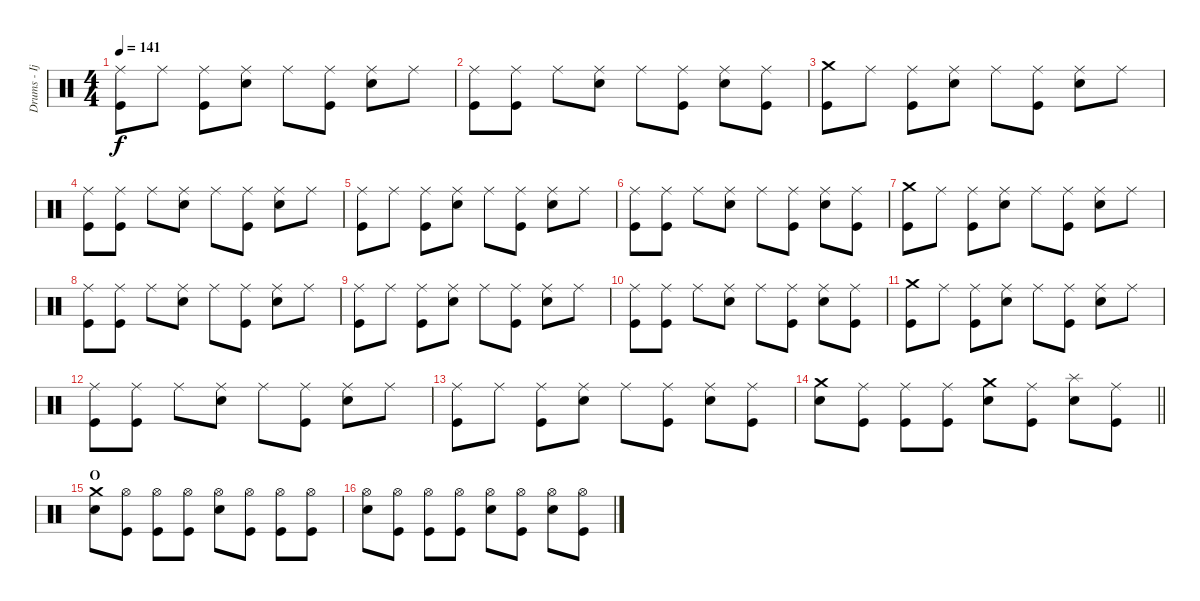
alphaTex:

\track ("Drums - Ijichi" "Drums - Ij") {instrument percussion}
\staff {score}
\articulation defaults
\ts (4 4)
\tempo 141
\clef neutral
\ks c
("Ride (middle)" "Kick (hit)").8{dy f} "Ride (middle)".8 ("Ride (middle)" "Kick (hit)").8 ("Ride (middle)" "Electric Snare (hit)").8 "Ride (middle)".8 ("Ride (middle)" "Kick (hit)").8 ("Ride (middle)" "Electric Snare (hit)").8 "Ride (middle)".8 |
("Ride (middle)" "Kick (hit)").8 ("Ride (middle)" "Kick (hit)").8 "Ride (middle)".8 ("Ride (middle)" "Electric Snare (hit)").8 "Ride (middle)".8 ("Ride (middle)" "Kick (hit)").8 ("Ride (middle)" "Electric Snare (hit)").8 ("Ride (middle)" "Kick (hit)").8 |
("Crash medium (hit)" "Kick (hit)").8 "Ride (middle)".8 ("Ride (middle)" "Kick (hit)").8 ("Ride (middle)" "Electric Snare (hit)").8 "Ride (middle)".8 ("Ride (middle)" "Kick (hit)").8 ("Ride (middle)" "Electric Snare (hit)").8 "Ride (middle)".8 |
("Ride (middle)" "Kick (hit)").8 ("Ride (middle)" "Kick (hit)").8 "Ride (middle)".8 ("Ride (middle)" "Electric Snare (hit)").8 "Ride (middle)".8 ("Ride (middle)" "Kick (hit)").8 ("Ride (middle)" "Electric Snare (hit)").8 "Ride (middle)".8 |
("Ride (middle)" "Kick (hit)").8 "Ride (middle)".8 ("Ride (middle)" "Kick (hit)").8 ("Ride (middle)" "Electric Snare (hit)").8 "Ride (middle)".8 ("Ride (middle)" "Kick (hit)").8 ("Ride (middle)" "Electric Snare (hit)").8 "Ride (middle)".8 |
("Ride (middle)" "Kick (hit)").8 ("Ride (middle)" "Kick (hit)").8 "Ride (middle)".8 ("Ride (middle)" "Electric Snare (hit)").8 "Ride (middle)".8 ("Ride (middle)" "Kick (hit)").8 ("Ride (middle)" "Electric Snare (hit)").8 ("Ride (middle)" "Kick (hit)").8 |
("Crash medium (hit)" "Kick (hit)").8 "Ride (middle)".8 ("Ride (middle)" "Kick (hit)").8 ("Ride (middle)" "Electric Snare (hit)").8 "Ride (middle)".8 ("Ride (middle)" "Kick (hit)").8 ("Ride (middle)" "Electric Snare (hit)").8 "Ride (middle)".8 |
("Ride (middle)" "Kick (hit)").8 ("Ride (middle)" "Kick (hit)").8 "Ride (middle)".8 ("Ride (middle)" "Electric Snare (hit)").8 "Ride (middle)".8 ("Ride (middle)" "Kick (hit)").8 ("Ride (middle)" "Electric Snare (hit)").8 "Ride (middle)".8 |
("Ride (middle)" "Kick (hit)").8 "Ride (middle)".8 ("Ride (middle)" "Kick (hit)").8 ("Ride (middle)" "Electric Snare (hit)").8 "Ride (middle)".8 ("Ride (middle)" "Kick (hit)").8 ("Ride (middle)" "Electric Snare (hit)").8 "Ride (middle)".8 |
("Ride (middle)" "Kick (hit)").8 ("Ride (middle)" "Kick (hit)").8 "Ride (middle)".8 ("Ride (middle)" "Electric Snare (hit)").8 "Ride (middle)".8 ("Ride (middle)" "Kick (hit)").8 ("Ride (middle)" "Electric Snare (hit)").8 ("Ride (middle)" "Kick (hit)").8 |
("Crash medium (hit)" "Kick (hit)").8 "Ride (middle)".8 ("Ride (middle)" "Kick (hit)").8 ("Ride (middle)" "Electric Snare (hit)").8 "Ride (middle)".8 ("Ride (middle)" "Kick (hit)").8 ("Ride (middle)" "Electric Snare (hit)").8 "Ride (middle)".8 |
("Ride (middle)" "Kick (hit)").8 ("Ride (middle)" "Kick (hit)").8 "Ride (middle)".8 ("Ride (middle)" "Electric Snare (hit)").8 "Ride (middle)".8 ("Ride (middle)" "Kick (hit)").8 ("Ride (middle)" "Electric Snare (hit)").8 "Ride (middle)".8 |
("Ride (middle)" "Kick (hit)").8 "Ride (middle)".8 ("Ride (middle)" "Kick (hit)").8 ("Ride (middle)" "Electric Snare (hit)").8 "Ride (middle)".8 ("Ride (middle)" "Kick (hit)").8 ("Ride (middle)" "Electric Snare (hit)").8 ("Ride (middle)" "Kick (hit)").8 |
\barLineRight lightlight
("Crash medium (hit)" "Electric Snare (hit)").8 ("Ride (middle)" "Kick (hit)").8 ("Ride (middle)" "Kick (hit)").8 ("Ride (middle)" "Kick (hit)").8 ("Crash medium (hit)" "Electric Snare (hit)").8 ("Ride (middle)" "Kick (hit)").8 ("Splash (hit)" "Electric Snare (hit)").8 ("Ride (middle)" "Kick (hit)").8 |
\section ("" "O")
("Crash medium (hit)" "Electric Snare (hit)").8 ("Hi-Hat (open)" "Kick (hit)").8 ("Hi-Hat (open)" "Kick (hit)").8 ("Hi-Hat (open)" "Kick (hit)").8 ("Hi-Hat (open)" "Electric Snare (hit)").8 ("Hi-Hat (open)" "Kick (hit)").8 ("Hi-Hat (open)" "Kick (hit)").8 ("Hi-Hat (open)" "Kick (hit)").8 |
("Hi-Hat (open)" "Electric Snare (hit)").8 ("Hi-Hat (open)" "Kick (hit)").8 ("Hi-Hat (open)" "Kick (hit)").8 ("Hi-Hat (open)" "Kick (hit)").8 ("Hi-Hat (open)" "Electric Snare (hit)").8 ("Hi-Hat (open)" "Kick (hit)").8 ("Hi-Hat (open)" "Electric Snare (hit)").8 ("Hi-Hat (open)" "Kick (hit)").8
